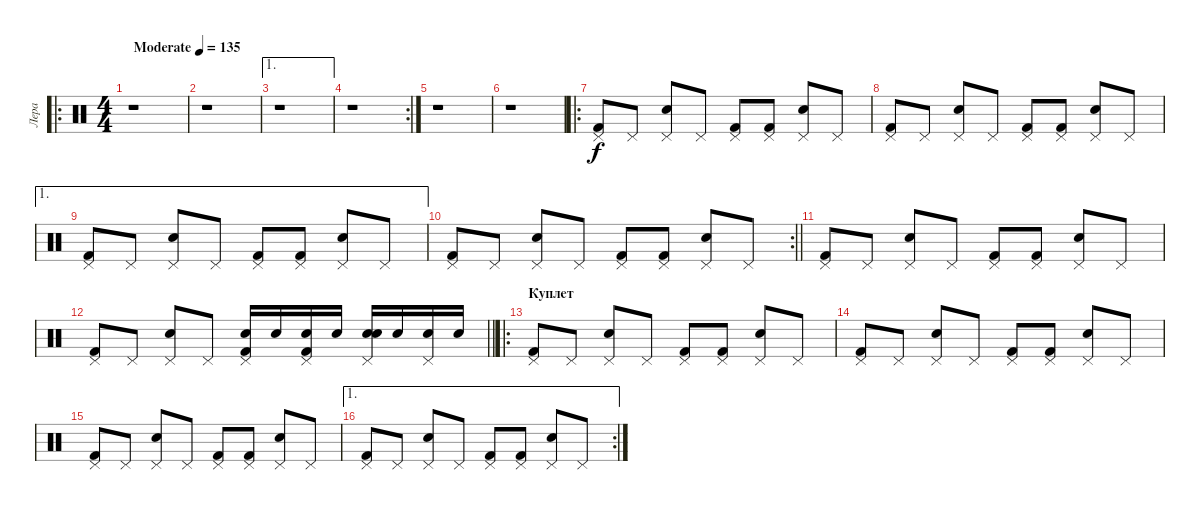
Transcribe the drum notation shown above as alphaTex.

\track ("Лера" "Лера") {instrument percussion}
\staff {score}
\articulation defaults
\ro
\ts (4 4)
\tempo (135 "Moderate")
\clef neutral
\ks c
r.1{dy f} |
r.1 |
\ae 1
r.1 |
\rc 2
r.1 |
r.1 |
r.1 |
\ro
("Pedal Hi-Hat (hit)" "Kick (hit) 2").8 "Pedal Hi-Hat (hit)".8 ("Pedal Hi-Hat (hit)" "Snare (hit) 2").8 "Pedal Hi-Hat (hit)".8 ("Pedal Hi-Hat (hit)" "Kick (hit) 2").8 ("Pedal Hi-Hat (hit)" "Kick (hit) 2").8 ("Pedal Hi-Hat (hit)" "Snare (hit) 2").8 "Pedal Hi-Hat (hit)".8 |
("Pedal Hi-Hat (hit)" "Kick (hit) 2").8 "Pedal Hi-Hat (hit)".8 ("Pedal Hi-Hat (hit)" "Snare (hit) 2").8 "Pedal Hi-Hat (hit)".8 ("Pedal Hi-Hat (hit)" "Kick (hit) 2").8 ("Pedal Hi-Hat (hit)" "Kick (hit) 2").8 ("Pedal Hi-Hat (hit)" "Snare (hit) 2").8 "Pedal Hi-Hat (hit)".8 |
\ae 1
("Pedal Hi-Hat (hit)" "Kick (hit) 2").8 "Pedal Hi-Hat (hit)".8 ("Pedal Hi-Hat (hit)" "Snare (hit) 2").8 "Pedal Hi-Hat (hit)".8 ("Pedal Hi-Hat (hit)" "Kick (hit) 2").8 ("Pedal Hi-Hat (hit)" "Kick (hit) 2").8 ("Pedal Hi-Hat (hit)" "Snare (hit) 2").8 "Pedal Hi-Hat (hit)".8 |
\rc 2
\barLineRight lightlight
("Pedal Hi-Hat (hit)" "Kick (hit) 2").8 "Pedal Hi-Hat (hit)".8 ("Pedal Hi-Hat (hit)" "Snare (hit) 2").8 "Pedal Hi-Hat (hit)".8 ("Pedal Hi-Hat (hit)" "Kick (hit) 2").8 ("Pedal Hi-Hat (hit)" "Kick (hit) 2").8 ("Pedal Hi-Hat (hit)" "Snare (hit) 2").8 "Pedal Hi-Hat (hit)".8 |
("Pedal Hi-Hat (hit)" "Kick (hit) 2").8 "Pedal Hi-Hat (hit)".8 ("Pedal Hi-Hat (hit)" "Snare (hit) 2").8 "Pedal Hi-Hat (hit)".8 ("Pedal Hi-Hat (hit)" "Kick (hit) 2").8 ("Pedal Hi-Hat (hit)" "Kick (hit) 2").8 ("Pedal Hi-Hat (hit)" "Snare (hit) 2").8 "Pedal Hi-Hat (hit)".8 |
\barLineRight lightlight
("Pedal Hi-Hat (hit)" "Kick (hit) 2").8 "Pedal Hi-Hat (hit)".8 ("Pedal Hi-Hat (hit)" "Snare (hit) 2").8 "Pedal Hi-Hat (hit)".8 ("Electric Snare (hit)" "Pedal Hi-Hat (hit)" "Kick (hit) 2").16 "Electric Snare (hit)".16 ("Electric Snare (hit)" "Pedal Hi-Hat (hit)" "Kick (hit) 2").16 "Electric Snare (hit)".16 ("Electric Snare (hit)" "Pedal Hi-Hat (hit)" "Snare (hit) 2").16 "Electric Snare (hit)".16 ("Electric Snare (hit)" "Pedal Hi-Hat (hit)").16 "Electric Snare (hit)".16 |
\ro
\section ("" "Куплет")
("Pedal Hi-Hat (hit)" "Kick (hit) 2").8 "Pedal Hi-Hat (hit)".8 ("Pedal Hi-Hat (hit)" "Snare (hit) 2").8 "Pedal Hi-Hat (hit)".8 ("Pedal Hi-Hat (hit)" "Kick (hit) 2").8 ("Pedal Hi-Hat (hit)" "Kick (hit) 2").8 ("Pedal Hi-Hat (hit)" "Snare (hit) 2").8 "Pedal Hi-Hat (hit)".8 |
("Pedal Hi-Hat (hit)" "Kick (hit) 2").8 "Pedal Hi-Hat (hit)".8 ("Pedal Hi-Hat (hit)" "Snare (hit) 2").8 "Pedal Hi-Hat (hit)".8 ("Pedal Hi-Hat (hit)" "Kick (hit) 2").8 ("Pedal Hi-Hat (hit)" "Kick (hit) 2").8 ("Pedal Hi-Hat (hit)" "Snare (hit) 2").8 "Pedal Hi-Hat (hit)".8 |
("Pedal Hi-Hat (hit)" "Kick (hit) 2").8 "Pedal Hi-Hat (hit)".8 ("Pedal Hi-Hat (hit)" "Snare (hit) 2").8 "Pedal Hi-Hat (hit)".8 ("Pedal Hi-Hat (hit)" "Kick (hit) 2").8 ("Pedal Hi-Hat (hit)" "Kick (hit) 2").8 ("Pedal Hi-Hat (hit)" "Snare (hit) 2").8 "Pedal Hi-Hat (hit)".8 |
\ae 1
\rc 2
("Pedal Hi-Hat (hit)" "Kick (hit) 2").8 "Pedal Hi-Hat (hit)".8 ("Pedal Hi-Hat (hit)" "Snare (hit) 2").8 "Pedal Hi-Hat (hit)".8 ("Pedal Hi-Hat (hit)" "Kick (hit) 2").8 ("Pedal Hi-Hat (hit)" "Kick (hit) 2").8 ("Pedal Hi-Hat (hit)" "Snare (hit) 2").8 "Pedal Hi-Hat (hit)".8
